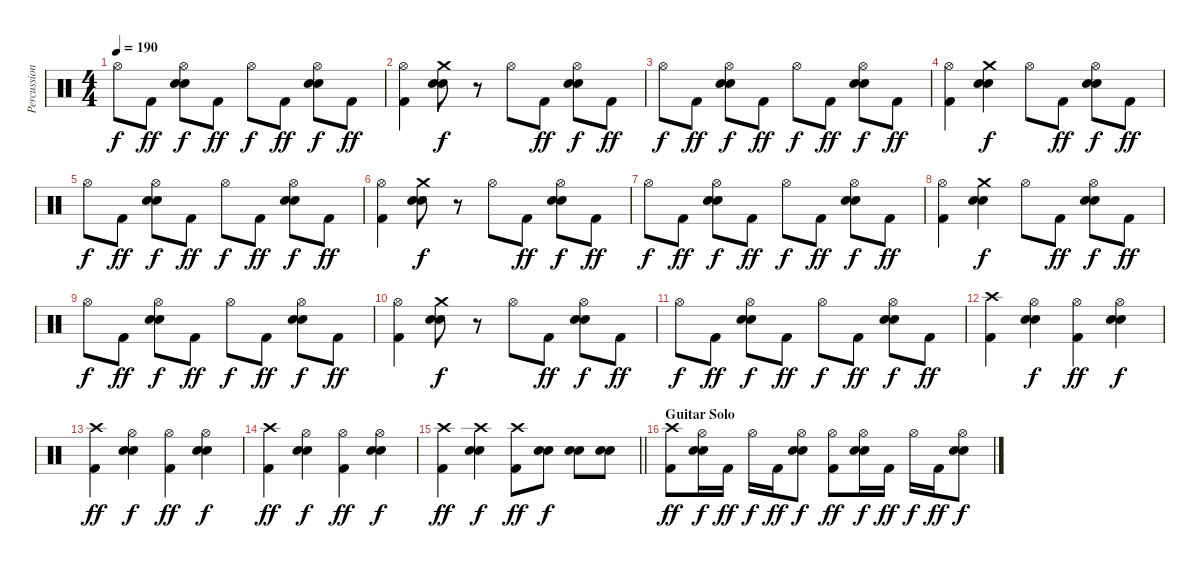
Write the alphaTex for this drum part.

\track ("Percussion" "Percussion") {instrument percussion}
\staff {score}
\articulation defaults
\ts (4 4)
\tempo 190
\clef neutral
\ks c "Hi-Hat (open)".8{dy f} "Kick (hit) 2".8{dy ff}
("Hi-Hat (open)" "Electric Snare (hit)" "Snare (hit) 2").8{dy f} "Kick (hit) 2".8{dy ff} "Hi-Hat (open)".8{dy f} "Kick (hit) 2".8{dy ff} ("Hi-Hat (open)" "Electric Snare (hit)" "Snare (hit) 2").8{dy f} "Kick (hit) 2".8{dy ff} |
("Hi-Hat (open)" "Kick (hit) 2").4 ("Crash medium (hit)" "Electric Snare (hit)" "Snare (hit) 2").8{dy f} r.8 "Hi-Hat (open)".8 "Kick (hit) 2".8{dy ff} ("Hi-Hat (open)" "Electric Snare (hit)" "Snare (hit) 2").8{dy f} "Kick (hit) 2".8{dy ff} |
"Hi-Hat (open)".8{dy f} "Kick (hit) 2".8{dy ff} ("Hi-Hat (open)" "Electric Snare (hit)" "Snare (hit) 2").8{dy f} "Kick (hit) 2".8{dy ff} "Hi-Hat (open)".8{dy f} "Kick (hit) 2".8{dy ff} ("Hi-Hat (open)" "Electric Snare (hit)" "Snare (hit) 2").8{dy f} "Kick (hit) 2".8{dy ff} |
("Hi-Hat (open)" "Kick (hit) 2").4 ("Crash medium (hit)" "Electric Snare (hit)" "Snare (hit) 2").4{dy f} "Hi-Hat (open)".8 "Kick (hit) 2".8{dy ff} ("Hi-Hat (open)" "Electric Snare (hit)" "Snare (hit) 2").8{dy f} "Kick (hit) 2".8{dy ff} |
"Hi-Hat (open)".8{dy f} "Kick (hit) 2".8{dy ff} ("Hi-Hat (open)" "Electric Snare (hit)" "Snare (hit) 2").8{dy f} "Kick (hit) 2".8{dy ff} "Hi-Hat (open)".8{dy f} "Kick (hit) 2".8{dy ff} ("Hi-Hat (open)" "Electric Snare (hit)" "Snare (hit) 2").8{dy f} "Kick (hit) 2".8{dy ff} |
("Hi-Hat (open)" "Kick (hit) 2").4 ("Crash medium (hit)" "Electric Snare (hit)" "Snare (hit) 2").8{dy f} r.8 "Hi-Hat (open)".8 "Kick (hit) 2".8{dy ff} ("Hi-Hat (open)" "Electric Snare (hit)" "Snare (hit) 2").8{dy f} "Kick (hit) 2".8{dy ff} |
"Hi-Hat (open)".8{dy f} "Kick (hit) 2".8{dy ff} ("Hi-Hat (open)" "Electric Snare (hit)" "Snare (hit) 2").8{dy f} "Kick (hit) 2".8{dy ff} "Hi-Hat (open)".8{dy f} "Kick (hit) 2".8{dy ff} ("Hi-Hat (open)" "Electric Snare (hit)" "Snare (hit) 2").8{dy f} "Kick (hit) 2".8{dy ff} |
("Hi-Hat (open)" "Kick (hit) 2").4 ("Crash medium (hit)" "Electric Snare (hit)" "Snare (hit) 2").4{dy f} "Hi-Hat (open)".8 "Kick (hit) 2".8{dy ff} ("Hi-Hat (open)" "Electric Snare (hit)" "Snare (hit) 2").8{dy f} "Kick (hit) 2".8{dy ff} |
"Hi-Hat (open)".8{dy f} "Kick (hit) 2".8{dy ff} ("Hi-Hat (open)" "Electric Snare (hit)" "Snare (hit) 2").8{dy f} "Kick (hit) 2".8{dy ff} "Hi-Hat (open)".8{dy f} "Kick (hit) 2".8{dy ff} ("Hi-Hat (open)" "Electric Snare (hit)" "Snare (hit) 2").8{dy f} "Kick (hit) 2".8{dy ff} |
("Hi-Hat (open)" "Kick (hit) 2").4 ("Crash medium (hit)" "Electric Snare (hit)" "Snare (hit) 2").8{dy f} r.8 "Hi-Hat (open)".8 "Kick (hit) 2".8{dy ff} ("Hi-Hat (open)" "Electric Snare (hit)" "Snare (hit) 2").8{dy f} "Kick (hit) 2".8{dy ff} |
"Hi-Hat (open)".8{dy f} "Kick (hit) 2".8{dy ff} ("Hi-Hat (open)" "Electric Snare (hit)" "Snare (hit) 2").8{dy f} "Kick (hit) 2".8{dy ff} "Hi-Hat (open)".8{dy f} "Kick (hit) 2".8{dy ff} ("Hi-Hat (open)" "Electric Snare (hit)" "Snare (hit) 2").8{dy f} "Kick (hit) 2".8{dy ff} |
("Crash high (hit)" "Kick (hit) 2").4 ("Hi-Hat (open)" "Electric Snare (hit)" "Snare (hit) 2").4{dy f} ("Hi-Hat (open)" "Kick (hit) 2").4{dy ff} ("Hi-Hat (open)" "Electric Snare (hit)" "Snare (hit) 2").4{dy f} |
("Crash high (hit)" "Kick (hit) 2").4{dy ff} ("Hi-Hat (open)" "Electric Snare (hit)" "Snare (hit) 2").4{dy f} ("Hi-Hat (open)" "Kick (hit) 2").4{dy ff} ("Hi-Hat (open)" "Electric Snare (hit)" "Snare (hit) 2").4{dy f} |
("Crash high (hit)" "Kick (hit) 2").4{dy ff} ("Hi-Hat (open)" "Electric Snare (hit)" "Snare (hit) 2").4{dy f} ("Hi-Hat (open)" "Kick (hit) 2").4{dy ff} ("Hi-Hat (open)" "Electric Snare (hit)" "Snare (hit) 2").4{dy f} |
\barLineRight lightlight
("Crash high (hit)" "Kick (hit) 2").4{dy ff} ("Crash high (hit)" "Electric Snare (hit)" "Snare (hit) 2").4{dy f} ("Crash high (hit)" "Kick (hit) 2").8{dy ff} ("Electric Snare (hit)" "Snare (hit) 2").8{dy f} ("Electric Snare (hit)" "Snare (hit) 2").8 ("Electric Snare (hit)" "Snare (hit) 2").8 |
\section ("" "Guitar Solo")
("Crash high (hit)" "Kick (hit) 2").8{dy ff} ("Hi-Hat (open)" "Electric Snare (hit)" "Snare (hit) 2").16{dy f} "Kick (hit) 2".16{dy ff} "Hi-Hat (open)".16{dy f} "Kick (hit) 2".16{dy ff} ("Hi-Hat (open)" "Electric Snare (hit)" "Snare (hit) 2").8{dy f} ("Hi-Hat (open)" "Kick (hit) 2").8{dy ff} ("Hi-Hat (open)" "Electric Snare (hit)" "Snare (hit) 2").16{dy f} "Kick (hit) 2".16{dy ff} "Hi-Hat (open)".16{dy f} "Kick (hit) 2".16{dy ff} ("Hi-Hat (open)" "Electric Snare (hit)" "Snare (hit) 2").8{dy f}
